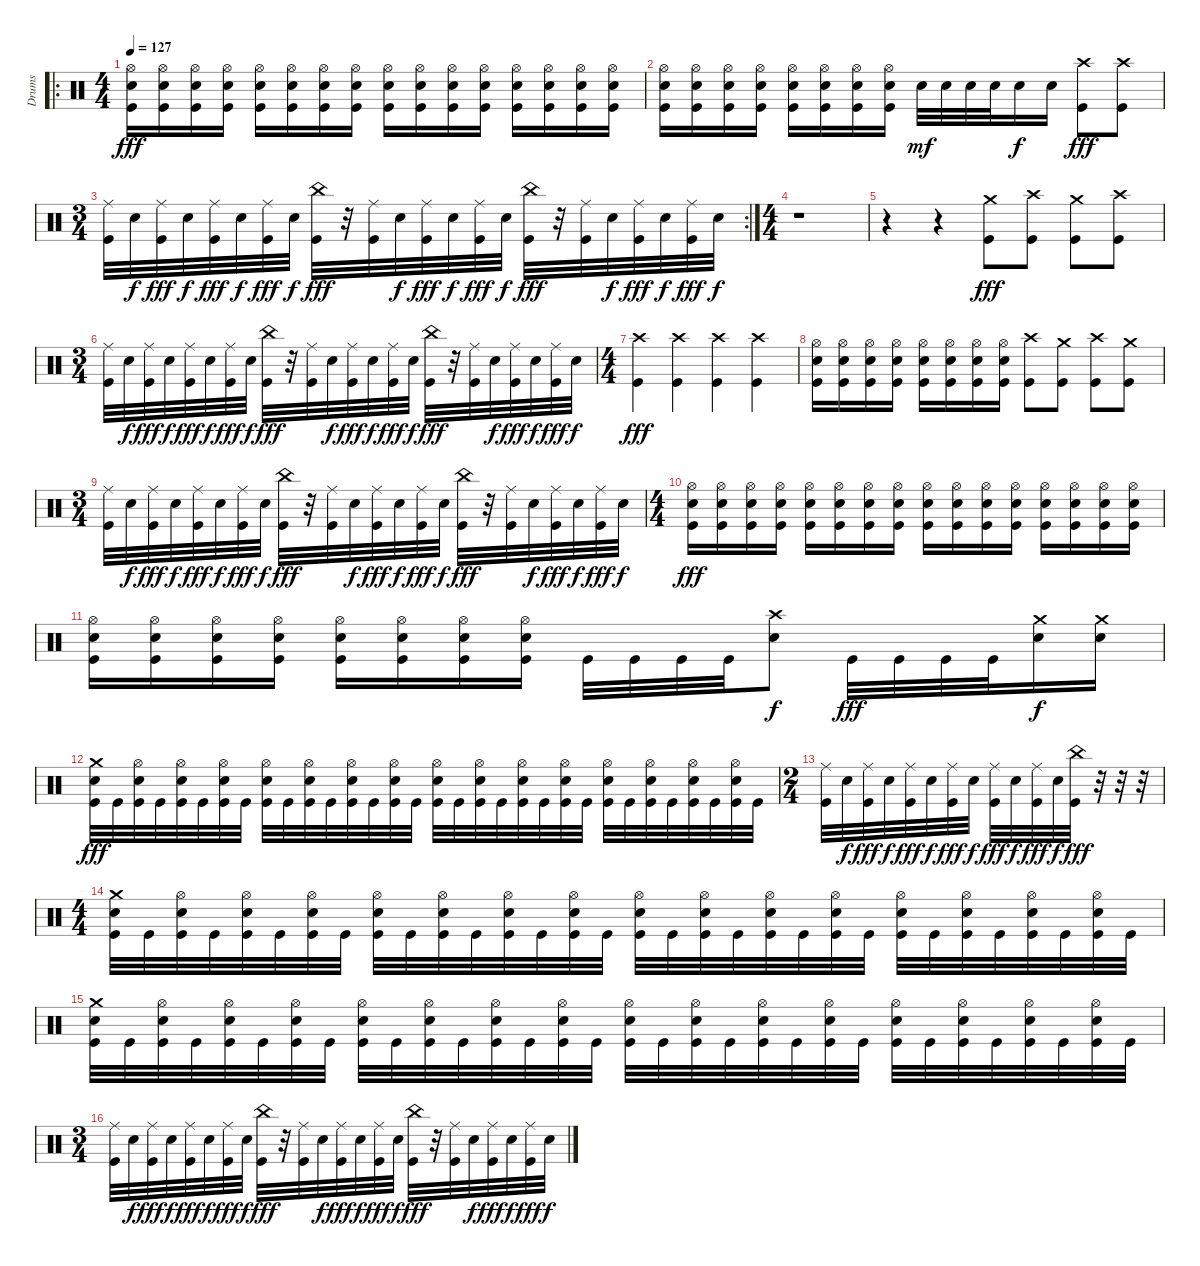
\track ("Drums" "Drums") {instrument percussion}
\staff {score}
\articulation defaults
\ro
\ts (4 4)
\tempo 127
\clef neutral
\ks c
("Hi-Hat (open)" "Electric Snare (hit)" "Kick (hit)").16{dy fff} ("Hi-Hat (open)" "Electric Snare (hit)" "Kick (hit)").16 ("Hi-Hat (open)" "Electric Snare (hit)" "Kick (hit)").16 ("Hi-Hat (open)" "Electric Snare (hit)" "Kick (hit)").16 ("Hi-Hat (open)" "Electric Snare (hit)" "Kick (hit)").16 ("Hi-Hat (open)" "Electric Snare (hit)" "Kick (hit)").16 ("Hi-Hat (open)" "Electric Snare (hit)" "Kick (hit)").16 ("Hi-Hat (open)" "Electric Snare (hit)" "Kick (hit)").16 ("Hi-Hat (open)" "Electric Snare (hit)" "Kick (hit)").16 ("Hi-Hat (open)" "Electric Snare (hit)" "Kick (hit)").16 ("Hi-Hat (open)" "Electric Snare (hit)" "Kick (hit)").16 ("Hi-Hat (open)" "Electric Snare (hit)" "Kick (hit)").16 ("Hi-Hat (open)" "Electric Snare (hit)" "Kick (hit)").16 ("Hi-Hat (open)" "Electric Snare (hit)" "Kick (hit)").16 ("Hi-Hat (open)" "Electric Snare (hit)" "Kick (hit)").16 ("Hi-Hat (open)" "Electric Snare (hit)" "Kick (hit)").16 |
("Hi-Hat (open)" "Electric Snare (hit)" "Kick (hit)").16 ("Hi-Hat (open)" "Electric Snare (hit)" "Kick (hit)").16 ("Hi-Hat (open)" "Electric Snare (hit)" "Kick (hit)").16 ("Hi-Hat (open)" "Electric Snare (hit)" "Kick (hit)").16 ("Hi-Hat (open)" "Electric Snare (hit)" "Kick (hit)").16 ("Hi-Hat (open)" "Electric Snare (hit)" "Kick (hit)").16 ("Hi-Hat (open)" "Electric Snare (hit)" "Kick (hit)").16 ("Hi-Hat (open)" "Electric Snare (hit)" "Kick (hit)").16 "Electric Snare (hit)".32{dy mf} "Electric Snare (hit)".32 "Electric Snare (hit)".32 "Electric Snare (hit)".32 "Electric Snare (hit)".16{dy f} "Electric Snare (hit)".16 ("Crash high (hit)" "Kick (hit)").8{dy fff} ("Crash high (hit)" "Kick (hit)").8 |
\rc 2
\ts (3 4)
("Ride (middle)" "Kick (hit)").32 "Electric Snare (hit)".32{dy f} ("Ride (middle)" "Kick (hit)").32{dy fff} "Electric Snare (hit)".32{dy f} ("Ride (middle)" "Kick (hit)").32{dy fff} "Electric Snare (hit)".32{dy f} ("Ride (middle)" "Kick (hit)").32{dy fff} "Electric Snare (hit)".32{dy f} ("China (hit)" "Kick (hit)").32{dy fff} r.32 ("Ride (middle)" "Kick (hit)").32 "Electric Snare (hit)".32{dy f} ("Ride (middle)" "Kick (hit)").32{dy fff} "Electric Snare (hit)".32{dy f} ("Ride (middle)" "Kick (hit)").32{dy fff} "Electric Snare (hit)".32{dy f} ("China (hit)" "Kick (hit)").32{dy fff} r.32 ("Ride (middle)" "Kick (hit)").32 "Electric Snare (hit)".32{dy f} ("Ride (middle)" "Kick (hit)").32{dy fff} "Electric Snare (hit)".32{dy f} ("Ride (middle)" "Kick (hit)").32{dy fff} "Electric Snare (hit)".32{dy f} |
\ts (4 4)
r.1 |
r.4 r.4 ("Crash medium (hit)" "Kick (hit)").8{dy fff} ("Crash high (hit)" "Kick (hit)").8 ("Crash medium (hit)" "Kick (hit)").8 ("Crash high (hit)" "Kick (hit)").8 |
\ts (3 4)
("Ride (middle)" "Kick (hit)").32 "Electric Snare (hit)".32{dy f} ("Ride (middle)" "Kick (hit)").32{dy fff} "Electric Snare (hit)".32{dy f} ("Ride (middle)" "Kick (hit)").32{dy fff} "Electric Snare (hit)".32{dy f} ("Ride (middle)" "Kick (hit)").32{dy fff} "Electric Snare (hit)".32{dy f} ("China (hit)" "Kick (hit)").32{dy fff} r.32 ("Ride (middle)" "Kick (hit)").32 "Electric Snare (hit)".32{dy f} ("Ride (middle)" "Kick (hit)").32{dy fff} "Electric Snare (hit)".32{dy f} ("Ride (middle)" "Kick (hit)").32{dy fff} "Electric Snare (hit)".32{dy f} ("China (hit)" "Kick (hit)").32{dy fff} r.32 ("Ride (middle)" "Kick (hit)").32 "Electric Snare (hit)".32{dy f} ("Ride (middle)" "Kick (hit)").32{dy fff} "Electric Snare (hit)".32{dy f} ("Ride (middle)" "Kick (hit)").32{dy fff} "Electric Snare (hit)".32{dy f} |
\ts (4 4)
("Crash high (hit)" "Kick (hit)").4{dy fff} ("Crash high (hit)" "Kick (hit)").4 ("Crash high (hit)" "Kick (hit)").4 ("Crash high (hit)" "Kick (hit)").4 |
("Hi-Hat (open)" "Electric Snare (hit)" "Kick (hit)").16 ("Hi-Hat (open)" "Electric Snare (hit)" "Kick (hit)").16 ("Hi-Hat (open)" "Electric Snare (hit)" "Kick (hit)").16 ("Hi-Hat (open)" "Electric Snare (hit)" "Kick (hit)").16 ("Hi-Hat (open)" "Electric Snare (hit)" "Kick (hit)").16 ("Hi-Hat (open)" "Electric Snare (hit)" "Kick (hit)").16 ("Hi-Hat (open)" "Electric Snare (hit)" "Kick (hit)").16 ("Hi-Hat (open)" "Electric Snare (hit)" "Kick (hit)").16 ("Crash high (hit)" "Kick (hit)").8 ("Crash medium (hit)" "Kick (hit)").8 ("Crash high (hit)" "Kick (hit)").8 ("Crash medium (hit)" "Kick (hit)").8 |
\ts (3 4)
("Ride (middle)" "Kick (hit)").32 "Electric Snare (hit)".32{dy f} ("Ride (middle)" "Kick (hit)").32{dy fff} "Electric Snare (hit)".32{dy f} ("Ride (middle)" "Kick (hit)").32{dy fff} "Electric Snare (hit)".32{dy f} ("Ride (middle)" "Kick (hit)").32{dy fff} "Electric Snare (hit)".32{dy f} ("China (hit)" "Kick (hit)").32{dy fff} r.32 ("Ride (middle)" "Kick (hit)").32 "Electric Snare (hit)".32{dy f} ("Ride (middle)" "Kick (hit)").32{dy fff} "Electric Snare (hit)".32{dy f} ("Ride (middle)" "Kick (hit)").32{dy fff} "Electric Snare (hit)".32{dy f} ("China (hit)" "Kick (hit)").32{dy fff} r.32 ("Ride (middle)" "Kick (hit)").32 "Electric Snare (hit)".32{dy f} ("Ride (middle)" "Kick (hit)").32{dy fff} "Electric Snare (hit)".32{dy f} ("Ride (middle)" "Kick (hit)").32{dy fff} "Electric Snare (hit)".32{dy f} |
\ts (4 4)
("Hi-Hat (open)" "Electric Snare (hit)" "Kick (hit)").16{dy fff} ("Hi-Hat (open)" "Electric Snare (hit)" "Kick (hit)").16 ("Hi-Hat (open)" "Electric Snare (hit)" "Kick (hit)").16 ("Hi-Hat (open)" "Electric Snare (hit)" "Kick (hit)").16 ("Hi-Hat (open)" "Electric Snare (hit)" "Kick (hit)").16 ("Hi-Hat (open)" "Electric Snare (hit)" "Kick (hit)").16 ("Hi-Hat (open)" "Electric Snare (hit)" "Kick (hit)").16 ("Hi-Hat (open)" "Electric Snare (hit)" "Kick (hit)").16 ("Hi-Hat (open)" "Electric Snare (hit)" "Kick (hit)").16 ("Hi-Hat (open)" "Electric Snare (hit)" "Kick (hit)").16 ("Hi-Hat (open)" "Electric Snare (hit)" "Kick (hit)").16 ("Hi-Hat (open)" "Electric Snare (hit)" "Kick (hit)").16 ("Hi-Hat (open)" "Electric Snare (hit)" "Kick (hit)").16 ("Hi-Hat (open)" "Electric Snare (hit)" "Kick (hit)").16 ("Hi-Hat (open)" "Electric Snare (hit)" "Kick (hit)").16 ("Hi-Hat (open)" "Electric Snare (hit)" "Kick (hit)").16 |
("Hi-Hat (open)" "Electric Snare (hit)" "Kick (hit)").16 ("Hi-Hat (open)" "Electric Snare (hit)" "Kick (hit)").16 ("Hi-Hat (open)" "Electric Snare (hit)" "Kick (hit)").16 ("Hi-Hat (open)" "Electric Snare (hit)" "Kick (hit)").16 ("Hi-Hat (open)" "Electric Snare (hit)" "Kick (hit)").16 ("Hi-Hat (open)" "Electric Snare (hit)" "Kick (hit)").16 ("Hi-Hat (open)" "Electric Snare (hit)" "Kick (hit)").16 ("Hi-Hat (open)" "Electric Snare (hit)" "Kick (hit)").16 "Kick (hit)".32 "Kick (hit)".32 "Kick (hit)".32 "Kick (hit)".32 ("Crash high (hit)" "Electric Snare (hit)").8{dy f} "Kick (hit)".32{dy fff} "Kick (hit)".32 "Kick (hit)".32 "Kick (hit)".32 ("Crash medium (hit)" "Electric Snare (hit)").16{dy f} ("Crash medium (hit)" "Electric Snare (hit)").16 |
("Crash medium (hit)" "Electric Snare (hit)" "Kick (hit)").32{dy fff} "Kick (hit)".32 ("Hi-Hat (open)" "Electric Snare (hit)" "Kick (hit)").32 "Kick (hit)".32 ("Hi-Hat (open)" "Electric Snare (hit)" "Kick (hit)").32 "Kick (hit)".32 ("Hi-Hat (open)" "Electric Snare (hit)" "Kick (hit)").32 "Kick (hit)".32 ("Hi-Hat (open)" "Electric Snare (hit)" "Kick (hit)").32 "Kick (hit)".32 ("Hi-Hat (open)" "Electric Snare (hit)" "Kick (hit)").32 "Kick (hit)".32 ("Hi-Hat (open)" "Electric Snare (hit)" "Kick (hit)").32 "Kick (hit)".32 ("Hi-Hat (open)" "Electric Snare (hit)" "Kick (hit)").32 "Kick (hit)".32 ("Hi-Hat (open)" "Electric Snare (hit)" "Kick (hit)").32 "Kick (hit)".32 ("Hi-Hat (open)" "Electric Snare (hit)" "Kick (hit)").32 "Kick (hit)".32 ("Hi-Hat (open)" "Electric Snare (hit)" "Kick (hit)").32 "Kick (hit)".32 ("Hi-Hat (open)" "Electric Snare (hit)" "Kick (hit)").32 "Kick (hit)".32 ("Hi-Hat (open)" "Electric Snare (hit)" "Kick (hit)").32 "Kick (hit)".32 ("Hi-Hat (open)" "Electric Snare (hit)" "Kick (hit)").32 "Kick (hit)".32 ("Hi-Hat (open)" "Electric Snare (hit)" "Kick (hit)").32 "Kick (hit)".32 ("Hi-Hat (open)" "Electric Snare (hit)" "Kick (hit)").32 "Kick (hit)".32 |
\ts (2 4)
("Ride (middle)" "Kick (hit)").32 "Electric Snare (hit)".32{dy f} ("Ride (middle)" "Kick (hit)").32{dy fff} "Electric Snare (hit)".32{dy f} ("Ride (middle)" "Kick (hit)").32{dy fff} "Electric Snare (hit)".32{dy f} ("Ride (middle)" "Kick (hit)").32{dy fff} "Electric Snare (hit)".32{dy f} ("Ride (middle)" "Kick (hit)").32{dy fff} "Electric Snare (hit)".32{dy f} ("Ride (middle)" "Kick (hit)").32{dy fff} "Electric Snare (hit)".32{dy f} ("China (hit)" "Kick (hit)").32{dy fff} r.32 r.32 r.32 |
\ts (4 4)
("Crash medium (hit)" "Electric Snare (hit)" "Kick (hit)").32 "Kick (hit)".32 ("Hi-Hat (open)" "Electric Snare (hit)" "Kick (hit)").32 "Kick (hit)".32 ("Hi-Hat (open)" "Electric Snare (hit)" "Kick (hit)").32 "Kick (hit)".32 ("Hi-Hat (open)" "Electric Snare (hit)" "Kick (hit)").32 "Kick (hit)".32 ("Hi-Hat (open)" "Electric Snare (hit)" "Kick (hit)").32 "Kick (hit)".32 ("Hi-Hat (open)" "Electric Snare (hit)" "Kick (hit)").32 "Kick (hit)".32 ("Hi-Hat (open)" "Electric Snare (hit)" "Kick (hit)").32 "Kick (hit)".32 ("Hi-Hat (open)" "Electric Snare (hit)" "Kick (hit)").32 "Kick (hit)".32 ("Hi-Hat (open)" "Electric Snare (hit)" "Kick (hit)").32 "Kick (hit)".32 ("Hi-Hat (open)" "Electric Snare (hit)" "Kick (hit)").32 "Kick (hit)".32 ("Hi-Hat (open)" "Electric Snare (hit)" "Kick (hit)").32 "Kick (hit)".32 ("Hi-Hat (open)" "Electric Snare (hit)" "Kick (hit)").32 "Kick (hit)".32 ("Hi-Hat (open)" "Electric Snare (hit)" "Kick (hit)").32 "Kick (hit)".32 ("Hi-Hat (open)" "Electric Snare (hit)" "Kick (hit)").32 "Kick (hit)".32 ("Hi-Hat (open)" "Electric Snare (hit)" "Kick (hit)").32 "Kick (hit)".32 ("Hi-Hat (open)" "Electric Snare (hit)" "Kick (hit)").32 "Kick (hit)".32 |
("Crash medium (hit)" "Electric Snare (hit)" "Kick (hit)").32 "Kick (hit)".32 ("Hi-Hat (open)" "Electric Snare (hit)" "Kick (hit)").32 "Kick (hit)".32 ("Hi-Hat (open)" "Electric Snare (hit)" "Kick (hit)").32 "Kick (hit)".32 ("Hi-Hat (open)" "Electric Snare (hit)" "Kick (hit)").32 "Kick (hit)".32 ("Hi-Hat (open)" "Electric Snare (hit)" "Kick (hit)").32 "Kick (hit)".32 ("Hi-Hat (open)" "Electric Snare (hit)" "Kick (hit)").32 "Kick (hit)".32 ("Hi-Hat (open)" "Electric Snare (hit)" "Kick (hit)").32 "Kick (hit)".32 ("Hi-Hat (open)" "Electric Snare (hit)" "Kick (hit)").32 "Kick (hit)".32 ("Hi-Hat (open)" "Electric Snare (hit)" "Kick (hit)").32 "Kick (hit)".32 ("Hi-Hat (open)" "Electric Snare (hit)" "Kick (hit)").32 "Kick (hit)".32 ("Hi-Hat (open)" "Electric Snare (hit)" "Kick (hit)").32 "Kick (hit)".32 ("Hi-Hat (open)" "Electric Snare (hit)" "Kick (hit)").32 "Kick (hit)".32 ("Hi-Hat (open)" "Electric Snare (hit)" "Kick (hit)").32 "Kick (hit)".32 ("Hi-Hat (open)" "Electric Snare (hit)" "Kick (hit)").32 "Kick (hit)".32 ("Hi-Hat (open)" "Electric Snare (hit)" "Kick (hit)").32 "Kick (hit)".32 ("Hi-Hat (open)" "Electric Snare (hit)" "Kick (hit)").32 "Kick (hit)".32 |
\ts (3 4)
("Ride (middle)" "Kick (hit)").32 "Electric Snare (hit)".32{dy f} ("Ride (middle)" "Kick (hit)").32{dy fff} "Electric Snare (hit)".32{dy f} ("Ride (middle)" "Kick (hit)").32{dy fff} "Electric Snare (hit)".32{dy f} ("Ride (middle)" "Kick (hit)").32{dy fff} "Electric Snare (hit)".32{dy f} ("China (hit)" "Kick (hit)").32{dy fff} r.32 ("Ride (middle)" "Kick (hit)").32 "Electric Snare (hit)".32{dy f} ("Ride (middle)" "Kick (hit)").32{dy fff} "Electric Snare (hit)".32{dy f} ("Ride (middle)" "Kick (hit)").32{dy fff} "Electric Snare (hit)".32{dy f} ("China (hit)" "Kick (hit)").32{dy fff} r.32 ("Ride (middle)" "Kick (hit)").32 "Electric Snare (hit)".32{dy f} ("Ride (middle)" "Kick (hit)").32{dy fff} "Electric Snare (hit)".32{dy f} ("Ride (middle)" "Kick (hit)").32{dy fff} "Electric Snare (hit)".32{dy f}
